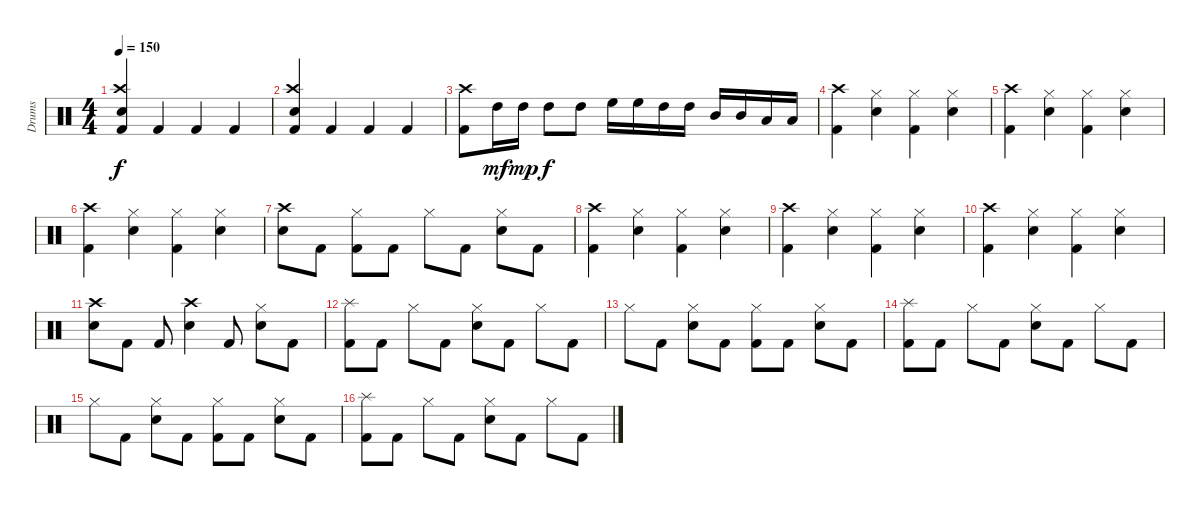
\track ("Drums" "Drums") {instrument percussion}
\staff {score}
\articulation defaults
\ts (4 4)
\tempo 150
\clef neutral
\ks c
("Snare (hit) 2" "Crash high (hit)" "Kick (hit) 2").4{dy f} "Kick (hit) 2".4 "Kick (hit) 2".4 "Kick (hit) 2".4 |
("Snare (hit) 2" "Crash high (hit)" "Kick (hit) 2").4 "Kick (hit) 2".4 "Kick (hit) 2".4 "Kick (hit) 2".4 |
("Kick (hit) 2" "Crash high (hit)").8 "High Tom (hit)".16{dy mf} "High Tom (hit)".16{dy mp} "High Tom (hit)".8{dy f} "High Tom (hit)".8 "High Floor Tom (hit)".16 "High Floor Tom (hit)".16 "High Tom (hit)".16 "High Tom (hit)".16 "Mid Tom (hit)".16 "Mid Tom (hit)".16 "Low Tom (hit)".16 "Low Tom (hit)".16 |
("Crash high (hit)" "Kick (hit) 2").4 ("Hi-Hat (closed)" "Snare (hit) 2").4 ("Hi-Hat (closed)" "Kick (hit) 2").4 ("Hi-Hat (closed)" "Snare (hit) 2").4 |
("Kick (hit) 2" "Crash high (hit)").4 ("Hi-Hat (closed)" "Snare (hit) 2").4 ("Kick (hit) 2" "Hi-Hat (closed)").4 ("Hi-Hat (closed)" "Snare (hit) 2").4 |
("Crash high (hit)" "Kick (hit) 2").4 ("Hi-Hat (closed)" "Snare (hit) 2").4 ("Kick (hit) 2" "Hi-Hat (closed)").4 ("Hi-Hat (closed)" "Snare (hit) 2").4 |
("Crash high (hit)" "Snare (hit) 2").8 "Kick (hit) 2".8 ("Kick (hit) 2" "Hi-Hat (closed)").8 "Kick (hit) 2".8 "Hi-Hat (closed)".8 "Kick (hit) 2".8 ("Hi-Hat (closed)" "Snare (hit) 2").8 "Kick (hit) 2".8 |
("Kick (hit) 2" "Crash high (hit)").4 ("Hi-Hat (closed)" "Snare (hit) 2").4 ("Kick (hit) 2" "Hi-Hat (closed)").4 ("Hi-Hat (closed)" "Snare (hit) 2").4 |
("Crash high (hit)" "Kick (hit) 2").4 ("Hi-Hat (closed)" "Snare (hit) 2").4 ("Hi-Hat (closed)" "Kick (hit) 2").4 ("Hi-Hat (closed)" "Snare (hit) 2").4 |
("Crash high (hit)" "Kick (hit) 2").4 ("Snare (hit) 2" "Hi-Hat (closed)").4 ("Hi-Hat (closed)" "Kick (hit) 2").4 ("Hi-Hat (closed)" "Snare (hit) 2").4 |
("Crash high (hit)" "Snare (hit) 2").8 "Kick (hit) 2".8 "Kick (hit) 2".8 ("Crash high (hit)" "Snare (hit) 2").4 "Kick (hit) 2".8 ("Hi-Hat (closed)" "Snare (hit) 2").8 "Kick (hit) 2".8 |
("Splash (hit)" "Kick (hit) 2").8 "Kick (hit) 2".8 "Hi-Hat (closed)".8 "Kick (hit) 2".8 ("Hi-Hat (closed)" "Snare (hit) 2").8 "Kick (hit) 2".8 "Hi-Hat (closed)".8 "Kick (hit) 2".8 |
"Hi-Hat (closed)".8 "Kick (hit) 2".8 ("Hi-Hat (closed)" "Snare (hit) 2").8 "Kick (hit) 2".8 ("Hi-Hat (closed)" "Kick (hit) 2").8 "Kick (hit) 2".8 ("Hi-Hat (closed)" "Snare (hit) 2").8 "Kick (hit) 2".8 |
("Kick (hit) 2" "Splash (hit)").8 "Kick (hit) 2".8 "Hi-Hat (closed)".8 "Kick (hit) 2".8 ("Snare (hit) 2" "Hi-Hat (closed)").8 "Kick (hit) 2".8 "Hi-Hat (closed)".8 "Kick (hit) 2".8 |
"Hi-Hat (closed)".8 "Kick (hit) 2".8 ("Hi-Hat (closed)" "Snare (hit) 2").8 "Kick (hit) 2".8 ("Kick (hit) 2" "Hi-Hat (closed)").8 "Kick (hit) 2".8 ("Snare (hit) 2" "Hi-Hat (closed)").8 "Kick (hit) 2".8 |
("Splash (hit)" "Kick (hit) 2").8 "Kick (hit) 2".8 "Hi-Hat (closed)".8 "Kick (hit) 2".8 ("Hi-Hat (closed)" "Snare (hit) 2").8 "Kick (hit) 2".8 "Hi-Hat (closed)".8 "Kick (hit) 2".8
